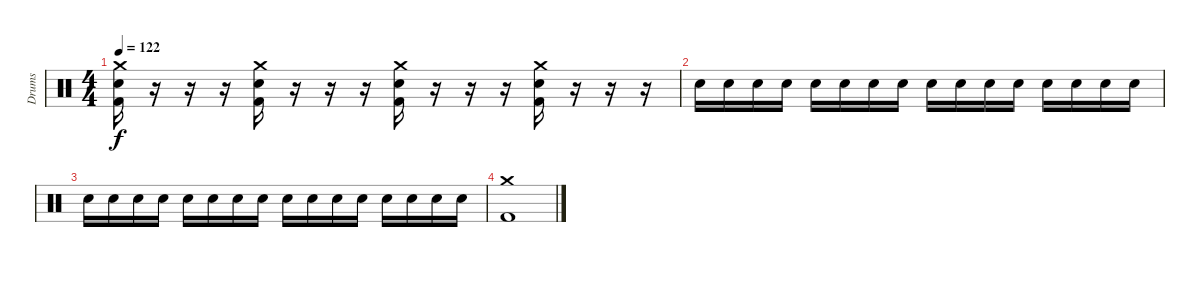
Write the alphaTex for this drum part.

\track ("Drums" "Drums") {instrument percussion}
\staff {score}
\articulation defaults
\ts (4 4)
\tempo 122
\clef neutral
\ks c
("Crash medium (hit)" "Electric Snare (hit)" "Kick (hit) 2").16{dy f} r.16 r.16 r.16 ("Crash medium (hit)" "Electric Snare (hit)" "Kick (hit) 2").16 r.16 r.16 r.16 ("Crash medium (hit)" "Electric Snare (hit)" "Kick (hit) 2").16 r.16 r.16 r.16 ("Crash medium (hit)" "Electric Snare (hit)" "Kick (hit) 2").16 r.16 r.16 r.16 |
"Electric Snare (hit)".16 "Electric Snare (hit)".16 "Electric Snare (hit)".16 "Electric Snare (hit)".16 "Electric Snare (hit)".16 "Electric Snare (hit)".16 "Electric Snare (hit)".16 "Electric Snare (hit)".16 "Electric Snare (hit)".16 "Electric Snare (hit)".16 "Electric Snare (hit)".16 "Electric Snare (hit)".16 "Electric Snare (hit)".16 "Electric Snare (hit)".16 "Electric Snare (hit)".16 "Electric Snare (hit)".16 |
"Electric Snare (hit)".16 "Electric Snare (hit)".16 "Electric Snare (hit)".16 "Electric Snare (hit)".16 "Electric Snare (hit)".16 "Electric Snare (hit)".16 "Electric Snare (hit)".16 "Electric Snare (hit)".16 "Electric Snare (hit)".16 "Electric Snare (hit)".16 "Electric Snare (hit)".16 "Electric Snare (hit)".16 "Electric Snare (hit)".16 "Electric Snare (hit)".16 "Electric Snare (hit)".16 "Electric Snare (hit)".16 |
("Crash medium (hit)" "Kick (hit) 2").1
